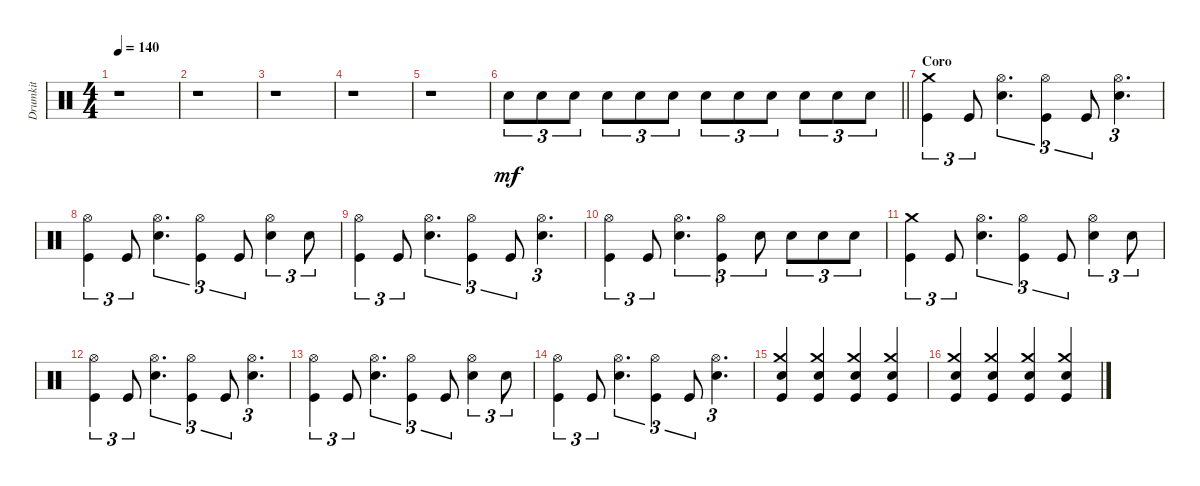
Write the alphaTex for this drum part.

\track ("Drumkit" "Drumkit") {instrument percussion}
\staff {score}
\articulation defaults
\ts (4 4)
\tempo 140
\clef neutral
\ks c
r.1{dy mf} |
r.1 |
r.1 |
r.1 |
r.1 |
\barLineRight lightlight "Snare (hit) 2".8{tu (3 2)} "Snare (hit) 2".8{tu (3 2)} "Snare (hit) 2".8{tu (3 2)} "Snare (hit) 2".8{tu (3 2)} "Snare (hit) 2".8{tu (3 2)} "Snare (hit) 2".8{tu (3 2)} "Snare (hit) 2".8{tu (3 2)} "Snare (hit) 2".8{tu (3 2)} "Snare (hit) 2".8{tu (3 2)} "Snare (hit) 2".8{tu (3 2)} "Snare (hit) 2".8{tu (3 2)} "Snare (hit) 2".8{tu (3 2)}
|
\section ("" "Coro")
("Crash medium (hit)" "Kick (hit)").4{tu (3 2)} "Kick (hit)".8{tu (3 2)} ("Snare (hit) 2" "Hi-Hat (open)").4{d tu (3 2)} ("Kick (hit)" "Hi-Hat (open)").4{tu (3 2)} "Kick (hit)".8{tu (3 2)} ("Snare (hit) 2" "Hi-Hat (open)").4{d tu (3 2)} |
("Kick (hit)" "Hi-Hat (open)").4{tu (3 2)} "Kick (hit)".8{tu (3 2)} ("Snare (hit) 2" "Hi-Hat (open)").4{d tu (3 2)} ("Kick (hit)" "Hi-Hat (open)").4{tu (3 2)} "Kick (hit)".8{tu (3 2)} ("Snare (hit) 2" "Hi-Hat (open)").4{tu (3 2)} "Snare (hit) 2".8{tu (3 2)} |
("Kick (hit)" "Hi-Hat (open)").4{tu (3 2)} "Kick (hit)".8{tu (3 2)} ("Snare (hit) 2" "Hi-Hat (open)").4{d tu (3 2)} ("Kick (hit)" "Hi-Hat (open)").4{tu (3 2)} "Kick (hit)".8{tu (3 2)} ("Snare (hit) 2" "Hi-Hat (open)").4{d tu (3 2)} |
("Kick (hit)" "Hi-Hat (open)").4{tu (3 2)} "Kick (hit)".8{tu (3 2)} ("Snare (hit) 2" "Hi-Hat (open)").4{d tu (3 2)} ("Kick (hit)" "Hi-Hat (open)").4{tu (3 2)} "Snare (hit) 2".8{tu (3 2)} "Snare (hit) 2".8{tu (3 2)} "Snare (hit) 2".8{tu (3 2)} "Snare (hit) 2".8{tu (3 2)} |
("Crash medium (hit)" "Kick (hit)").4{tu (3 2)} "Kick (hit)".8{tu (3 2)} ("Snare (hit) 2" "Hi-Hat (open)").4{d tu (3 2)} ("Kick (hit)" "Hi-Hat (open)").4{tu (3 2)} "Kick (hit)".8{tu (3 2)} ("Snare (hit) 2" "Hi-Hat (open)").4{tu (3 2)} "Snare (hit) 2".8{tu (3 2)} |
("Kick (hit)" "Hi-Hat (open)").4{tu (3 2)} "Kick (hit)".8{tu (3 2)} ("Snare (hit) 2" "Hi-Hat (open)").4{d tu (3 2)} ("Kick (hit)" "Hi-Hat (open)").4{tu (3 2)} "Kick (hit)".8{tu (3 2)} ("Snare (hit) 2" "Hi-Hat (open)").4{d tu (3 2)} |
("Kick (hit)" "Hi-Hat (open)").4{tu (3 2)} "Kick (hit)".8{tu (3 2)} ("Snare (hit) 2" "Hi-Hat (open)").4{d tu (3 2)} ("Kick (hit)" "Hi-Hat (open)").4{tu (3 2)} "Kick (hit)".8{tu (3 2)} ("Snare (hit) 2" "Hi-Hat (open)").4{tu (3 2)} "Snare (hit) 2".8{tu (3 2)} |
("Kick (hit)" "Hi-Hat (open)").4{tu (3 2)} "Kick (hit)".8{tu (3 2)} ("Snare (hit) 2" "Hi-Hat (open)").4{d tu (3 2)} ("Kick (hit)" "Hi-Hat (open)").4{tu (3 2)} "Kick (hit)".8{tu (3 2)} ("Snare (hit) 2" "Hi-Hat (open)").4{d tu (3 2)} |
("Snare (hit) 2" "Crash medium (hit)" "Kick (hit)").4 ("Snare (hit) 2" "Crash medium (hit)" "Kick (hit)").4 ("Snare (hit) 2" "Crash medium (hit)" "Kick (hit)").4 ("Snare (hit) 2" "Crash medium (hit)" "Kick (hit)").4 |
("Snare (hit) 2" "Crash medium (hit)" "Kick (hit)").4 ("Snare (hit) 2" "Crash medium (hit)" "Kick (hit)").4 ("Snare (hit) 2" "Crash medium (hit)" "Kick (hit)").4 ("Snare (hit) 2" "Crash medium (hit)" "Kick (hit)").4
